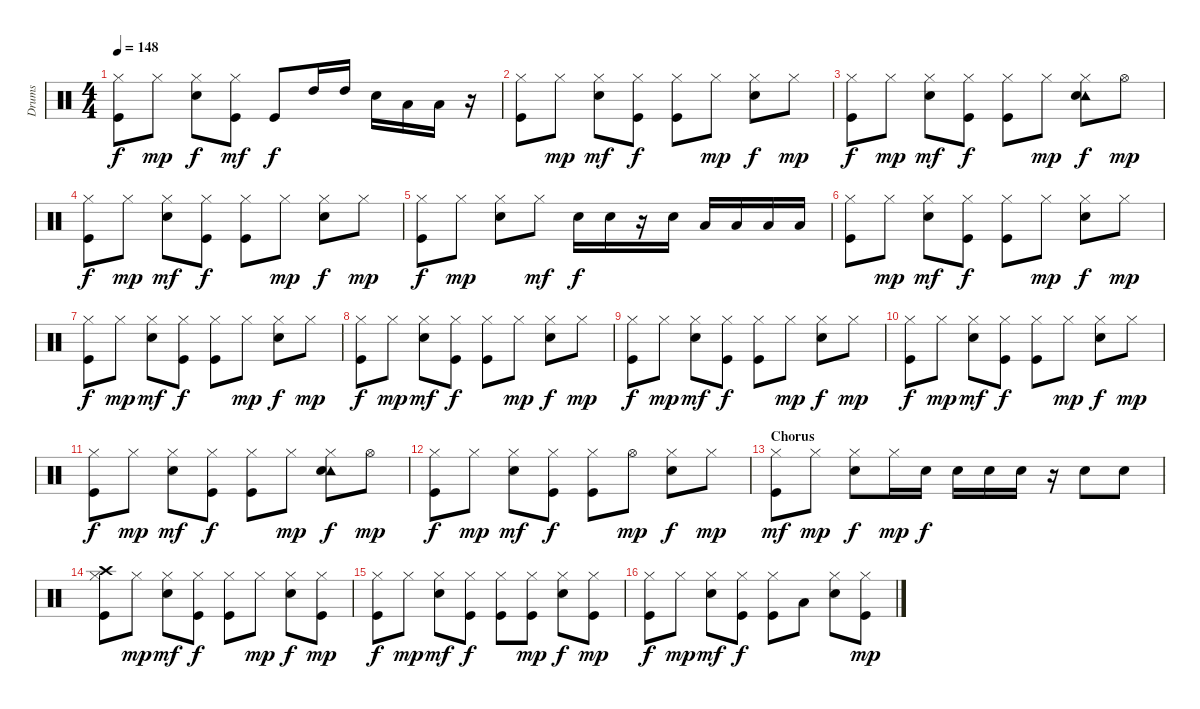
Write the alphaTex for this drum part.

\track ("Drums   " "Drums   ") {instrument percussion}
\staff {score}
\articulation defaults
\ts (4 4)
\tempo 148
\clef neutral
\ks c
("Hi-Hat (closed)" "Kick (hit)").8{dy f} "Hi-Hat (closed)".8{dy mp} ("Hi-Hat (closed)" "Snare (hit) 2").8{dy f} ("Hi-Hat (closed)" "Kick (hit)").8{dy mf} "Kick (hit)".8{dy f} "High Tom (hit)".16 "High Tom (hit)".16 "Snare (hit) 2".16 "Low Tom (hit)".16 "Low Floor Tom (hit)".16 r.16 |
("Hi-Hat (closed)" "Kick (hit)").8 "Hi-Hat (closed)".8{dy mp} ("Hi-Hat (closed)" "Snare (hit) 2").8{dy mf} ("Hi-Hat (closed)" "Kick (hit)").8{dy f} ("Hi-Hat (closed)" "Kick (hit)").8 "Hi-Hat (closed)".8{dy mp} ("Hi-Hat (closed)" "Snare (hit) 2").8{dy f} "Hi-Hat (closed)".8{dy mp} |
("Hi-Hat (closed)" "Kick (hit)").8{dy f} "Hi-Hat (closed)".8{dy mp} ("Hi-Hat (closed)" "Snare (hit) 2").8{dy mf} ("Hi-Hat (closed)" "Kick (hit)").8{dy f} ("Hi-Hat (closed)" "Kick (hit)").8 "Hi-Hat (closed)".8{dy mp} ("Hi-Hat (closed)" "Tambourine (hit)" "Snare (hit) 2").8{dy f} "Hi-Hat (open)".8{dy mp} |
("Hi-Hat (closed)" "Kick (hit)").8{dy f} "Hi-Hat (closed)".8{dy mp} ("Hi-Hat (closed)" "Snare (hit) 2").8{dy mf} ("Hi-Hat (closed)" "Kick (hit)").8{dy f} ("Hi-Hat (closed)" "Kick (hit)").8 "Hi-Hat (closed)".8{dy mp} ("Hi-Hat (closed)" "Snare (hit) 2").8{dy f} "Hi-Hat (closed)".8{dy mp} |
("Hi-Hat (closed)" "Kick (hit)").8{dy f} "Hi-Hat (closed)".8{dy mp} ("Hi-Hat (closed)" "Snare (hit) 2").8 "Hi-Hat (closed)".8{dy mf} "Snare (hit) 2".16{dy f} "Snare (hit) 2".16 r.16 "Snare (hit) 2".16 "Low Tom (hit)".16 "Low Tom (hit)".16 "Low Tom (hit)".16 "Low Tom (hit)".16 |
("Hi-Hat (closed)" "Kick (hit)").8 "Hi-Hat (closed)".8{dy mp} ("Hi-Hat (closed)" "Snare (hit) 2").8{dy mf} ("Hi-Hat (closed)" "Kick (hit)").8{dy f} ("Hi-Hat (closed)" "Kick (hit)").8 "Hi-Hat (closed)".8{dy mp} ("Hi-Hat (closed)" "Snare (hit) 2").8{dy f} "Hi-Hat (closed)".8{dy mp} |
("Hi-Hat (closed)" "Kick (hit)").8{dy f} "Hi-Hat (closed)".8{dy mp} ("Hi-Hat (closed)" "Snare (hit) 2").8{dy mf} ("Hi-Hat (closed)" "Kick (hit)").8{dy f} ("Hi-Hat (closed)" "Kick (hit)").8 "Hi-Hat (closed)".8{dy mp} ("Hi-Hat (closed)" "Snare (hit) 2").8{dy f} "Hi-Hat (closed)".8{dy mp} |
("Hi-Hat (closed)" "Kick (hit)").8{dy f} "Hi-Hat (closed)".8{dy mp} ("Hi-Hat (closed)" "Snare (hit) 2").8{dy mf} ("Hi-Hat (closed)" "Kick (hit)").8{dy f} ("Hi-Hat (closed)" "Kick (hit)").8 "Hi-Hat (closed)".8{dy mp} ("Hi-Hat (closed)" "Snare (hit) 2").8{dy f} "Hi-Hat (closed)".8{dy mp} |
("Hi-Hat (closed)" "Kick (hit)").8{dy f} "Hi-Hat (closed)".8{dy mp} ("Hi-Hat (closed)" "Snare (hit) 2").8{dy mf} ("Hi-Hat (closed)" "Kick (hit)").8{dy f} ("Hi-Hat (closed)" "Kick (hit)").8 "Hi-Hat (closed)".8{dy mp} ("Hi-Hat (closed)" "Snare (hit) 2").8{dy f} "Hi-Hat (closed)".8{dy mp} |
("Hi-Hat (closed)" "Kick (hit)").8{dy f} "Hi-Hat (closed)".8{dy mp} ("Hi-Hat (closed)" "Snare (hit) 2").8{dy mf} ("Hi-Hat (closed)" "Kick (hit)").8{dy f} ("Hi-Hat (closed)" "Kick (hit)").8 "Hi-Hat (closed)".8{dy mp} ("Hi-Hat (closed)" "Snare (hit) 2").8{dy f} "Hi-Hat (closed)".8{dy mp} |
("Hi-Hat (closed)" "Kick (hit)").8{dy f} "Hi-Hat (closed)".8{dy mp} ("Hi-Hat (closed)" "Snare (hit) 2").8{dy mf} ("Hi-Hat (closed)" "Kick (hit)").8{dy f} ("Hi-Hat (closed)" "Kick (hit)").8 "Hi-Hat (closed)".8{dy mp} ("Hi-Hat (closed)" "Tambourine (hit)" "Snare (hit) 2").8{dy f} "Hi-Hat (open)".8{dy mp} |
("Hi-Hat (closed)" "Kick (hit)").8{dy f} "Hi-Hat (closed)".8{dy mp} ("Hi-Hat (closed)" "Snare (hit) 2").8{dy mf} ("Hi-Hat (closed)" "Kick (hit)").8{dy f} ("Hi-Hat (closed)" "Kick (hit)").8 "Hi-Hat (open)".8{dy mp} ("Hi-Hat (closed)" "Snare (hit) 2").8{dy f} "Hi-Hat (closed)".8{dy mp} |
\section ("" "Chorus")
("Hi-Hat (closed)" "Kick (hit)").8{dy mf} "Hi-Hat (closed)".8{dy mp} ("Hi-Hat (closed)" "Snare (hit) 2").8{dy f} "Hi-Hat (closed)".16{dy mp} "Snare (hit) 2".16{dy f} "Snare (hit) 2".16 "Snare (hit) 2".16 "Snare (hit) 2".16 r.16 "Snare (hit) 2".8 "Snare (hit) 2".8 |
("Hi-Hat (closed)" "Crash high (hit)" "Kick (hit)").8 "Hi-Hat (closed)".8{dy mp} ("Hi-Hat (closed)" "Snare (hit) 2").8{dy mf} ("Hi-Hat (closed)" "Kick (hit)").8{dy f} ("Hi-Hat (closed)" "Kick (hit)").8 "Hi-Hat (closed)".8{dy mp} ("Hi-Hat (closed)" "Snare (hit) 2").8{dy f} ("Hi-Hat (closed)" "Kick (hit)").8{dy mp} |
("Hi-Hat (closed)" "Kick (hit)").8{dy f} "Hi-Hat (closed)".8{dy mp} ("Hi-Hat (closed)" "Snare (hit) 2").8{dy mf} ("Hi-Hat (closed)" "Kick (hit)").8{dy f} ("Hi-Hat (closed)" "Kick (hit)").8 ("Hi-Hat (closed)" "Kick (hit)").8{dy mp} ("Hi-Hat (closed)" "Snare (hit) 2").8{dy f} ("Hi-Hat (closed)" "Kick (hit)").8{dy mp} |
("Hi-Hat (closed)" "Kick (hit)").8{dy f} "Hi-Hat (closed)".8{dy mp} ("Hi-Hat (closed)" "Snare (hit) 2").8{dy mf} ("Hi-Hat (closed)" "Kick (hit)").8{dy f} ("Hi-Hat (closed)" "Kick (hit)").8 "Low Floor Tom (hit)".8 ("Hi-Hat (closed)" "Snare (hit) 2").8 ("Hi-Hat (closed)" "Kick (hit)").8{dy mp}
